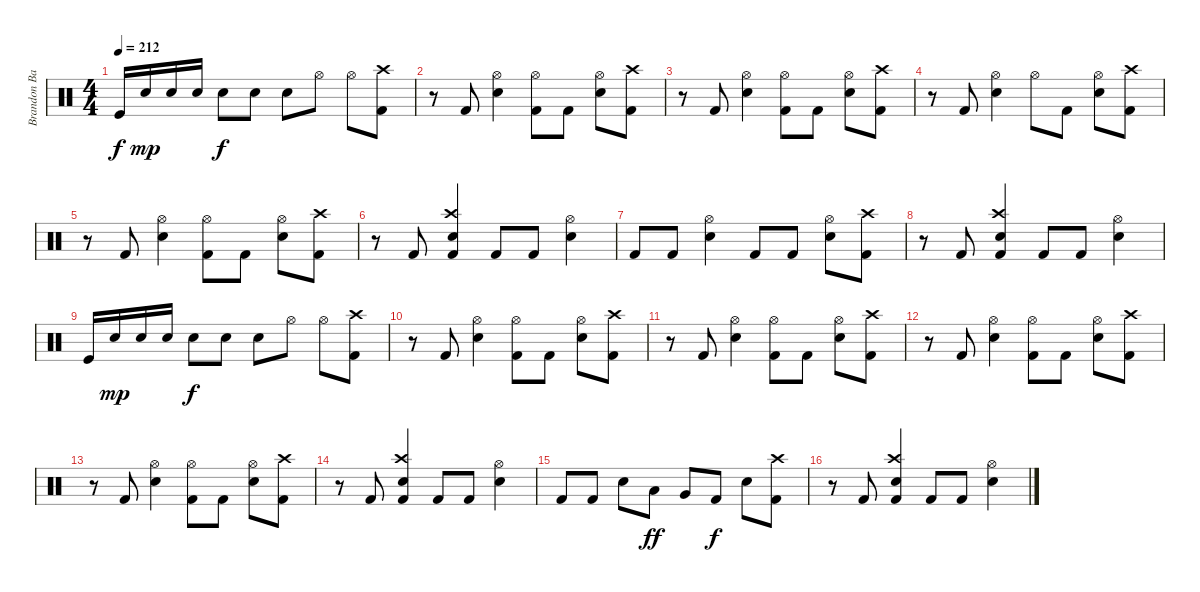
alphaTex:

\track ("Brandon Barnes - Drums" "Brandon Ba") {instrument percussion}
\staff {score}
\articulation defaults
\ts (4 4)
\tempo 212
\clef neutral
\ks c "Kick (hit)".16{dy f} "Snare (hit) 2".16{dy mp} "Snare (hit) 2".16 "Snare (hit) 2".16 "Snare (hit) 2".8{dy f} "Snare (hit) 2".8 "Snare (hit) 2".8 "Hi-Hat (open)".8 "Hi-Hat (open)".8
("Crash high (hit)" "Kick (hit) 2").8 |
r.8 "Kick (hit) 2".8 ("Snare (hit) 2" "Hi-Hat (open)").4 ("Kick (hit) 2" "Hi-Hat (open)").8 "Kick (hit) 2".8 ("Snare (hit) 2" "Hi-Hat (open)").8 ("Kick (hit) 2" "Crash high (hit)").8 |
r.8 "Kick (hit) 2".8 ("Snare (hit) 2" "Hi-Hat (open)").4 ("Kick (hit) 2" "Hi-Hat (open)").8 "Kick (hit) 2".8 ("Snare (hit) 2" "Hi-Hat (open)").8 ("Kick (hit) 2" "Crash high (hit)").8 |
r.8 "Kick (hit) 2".8 ("Snare (hit) 2" "Hi-Hat (open)").4 "Hi-Hat (open)".8 "Kick (hit) 2".8 ("Snare (hit) 2" "Hi-Hat (open)").8 ("Kick (hit) 2" "Crash high (hit)").8 |
r.8 "Kick (hit) 2".8 ("Snare (hit) 2" "Hi-Hat (open)").4 ("Kick (hit) 2" "Hi-Hat (open)").8 "Kick (hit) 2".8 ("Snare (hit) 2" "Hi-Hat (open)").8 ("Kick (hit) 2" "Crash high (hit)").8 |
r.8 "Kick (hit) 2".8 ("Kick (hit) 2" "Snare (hit) 2" "Crash high (hit)").4 "Kick (hit) 2".8 "Kick (hit) 2".8 ("Snare (hit) 2" "Hi-Hat (open)").4 |
"Kick (hit) 2".8 "Kick (hit) 2".8 ("Snare (hit) 2" "Hi-Hat (open)").4 "Kick (hit) 2".8 "Kick (hit) 2".8 ("Snare (hit) 2" "Hi-Hat (open)").8 ("Kick (hit) 2" "Crash high (hit)").8 |
r.8 "Kick (hit) 2".8 ("Kick (hit) 2" "Snare (hit) 2" "Crash high (hit)").4 "Kick (hit) 2".8 "Kick (hit) 2".8 ("Snare (hit) 2" "Hi-Hat (open)").4 |
"Kick (hit)".16 "Snare (hit) 2".16{dy mp} "Snare (hit) 2".16 "Snare (hit) 2".16 "Snare (hit) 2".8{dy f} "Snare (hit) 2".8 "Snare (hit) 2".8 "Hi-Hat (open)".8 "Hi-Hat (open)".8 ("Crash high (hit)" "Kick (hit) 2").8 |
r.8 "Kick (hit) 2".8 ("Snare (hit) 2" "Hi-Hat (open)").4 ("Kick (hit) 2" "Hi-Hat (open)").8 "Kick (hit) 2".8 ("Snare (hit) 2" "Hi-Hat (open)").8 ("Kick (hit) 2" "Crash high (hit)").8 |
r.8 "Kick (hit) 2".8 ("Snare (hit) 2" "Hi-Hat (open)").4 ("Kick (hit) 2" "Hi-Hat (open)").8 "Kick (hit) 2".8 ("Snare (hit) 2" "Hi-Hat (open)").8 ("Kick (hit) 2" "Crash high (hit)").8 |
r.8 "Kick (hit) 2".8 ("Snare (hit) 2" "Hi-Hat (open)").4 ("Kick (hit) 2" "Hi-Hat (open)").8 "Kick (hit) 2".8 ("Snare (hit) 2" "Hi-Hat (open)").8 ("Kick (hit) 2" "Crash high (hit)").8 |
r.8 "Kick (hit) 2".8 ("Snare (hit) 2" "Hi-Hat (open)").4 ("Kick (hit) 2" "Hi-Hat (open)").8 "Kick (hit) 2".8 ("Snare (hit) 2" "Hi-Hat (open)").8 ("Kick (hit) 2" "Crash high (hit)").8 |
r.8 "Kick (hit) 2".8 ("Kick (hit) 2" "Snare (hit) 2" "Crash high (hit)").4 "Kick (hit) 2".8 "Kick (hit) 2".8 ("Snare (hit) 2" "Hi-Hat (open)").4 |
"Kick (hit) 2".8 "Kick (hit) 2".8 "Snare (hit) 2".8 "Low Tom (hit)".8{dy ff} "Very Low Tom (hit)".8 "Kick (hit) 2".8{dy f} "Snare (hit) 2".8 ("Kick (hit) 2" "Crash high (hit)").8 |
r.8 "Kick (hit) 2".8 ("Kick (hit) 2" "Snare (hit) 2" "Crash high (hit)").4 "Kick (hit) 2".8 "Kick (hit) 2".8 ("Snare (hit) 2" "Hi-Hat (open)").4
